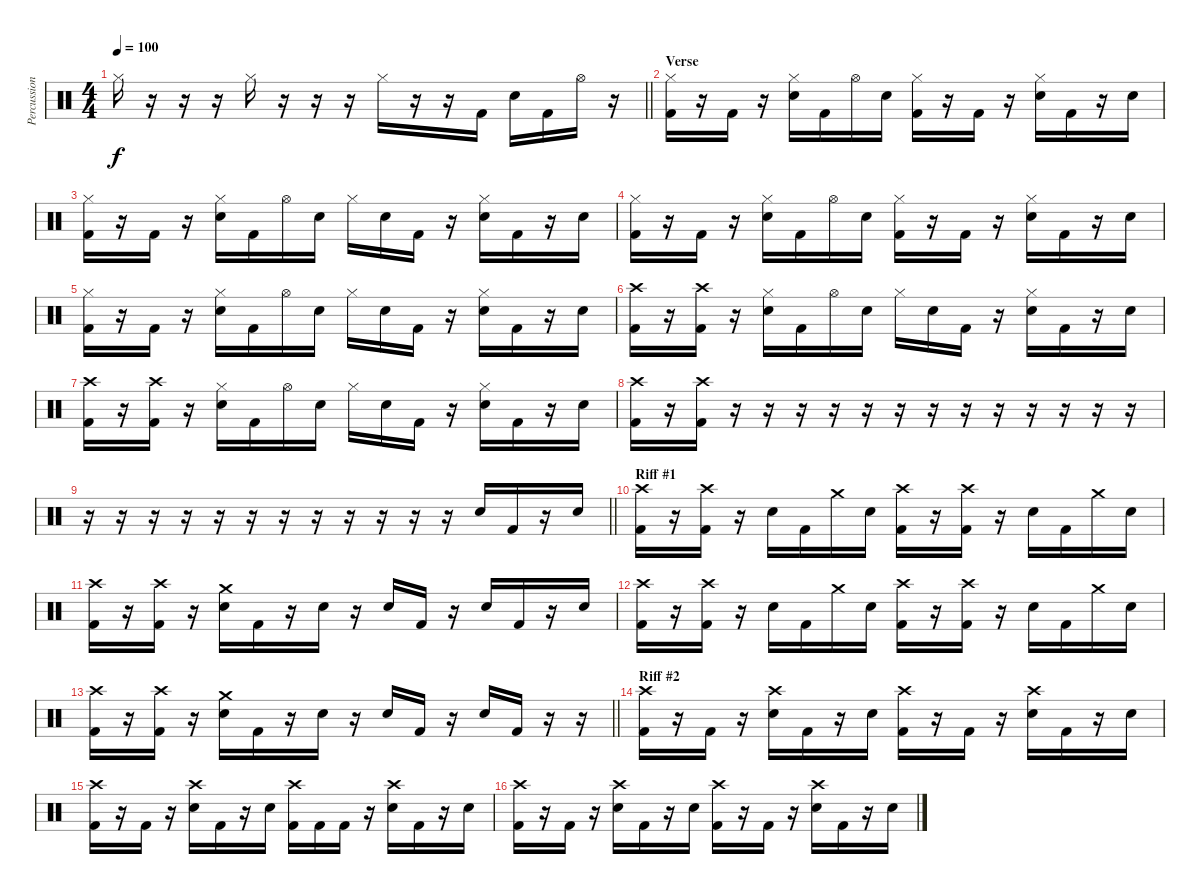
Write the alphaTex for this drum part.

\track ("Percussion" "Percussion") {instrument percussion}
\staff {score}
\articulation defaults
\ts (4 4)
\tempo 100
\clef neutral
\barLineRight lightlight
\ks c "Hi-Hat (closed)".16{dy f}
r.16 r.16 r.16 "Hi-Hat (closed)".16 r.16 r.16 r.16 "Hi-Hat (closed)".16 r.16 r.16 "Kick (hit) 2".16 "Electric Snare (hit)".16 "Kick (hit) 2".16 "Hi-Hat (open)".16 r.16 |
\section ("" "Verse")
("Hi-Hat (closed)" "Kick (hit) 2").16 r.16 "Kick (hit) 2".16 r.16 ("Hi-Hat (closed)" "Electric Snare (hit)").16 "Kick (hit) 2".16 "Hi-Hat (open)".16 "Electric Snare (hit)".16 ("Hi-Hat (closed)" "Kick (hit) 2").16 r.16 "Kick (hit) 2".16 r.16 ("Hi-Hat (closed)" "Electric Snare (hit)").16 "Kick (hit) 2".16 r.16 "Electric Snare (hit)".16 |
("Hi-Hat (closed)" "Kick (hit) 2").16 r.16 "Kick (hit) 2".16 r.16 ("Hi-Hat (closed)" "Electric Snare (hit)").16 "Kick (hit) 2".16 "Hi-Hat (open)".16 "Electric Snare (hit)".16 "Hi-Hat (closed)".16 "Electric Snare (hit)".16 "Kick (hit) 2".16 r.16 ("Hi-Hat (closed)" "Electric Snare (hit)").16 "Kick (hit) 2".16 r.16 "Electric Snare (hit)".16 |
("Hi-Hat (closed)" "Kick (hit) 2").16 r.16 "Kick (hit) 2".16 r.16 ("Hi-Hat (closed)" "Electric Snare (hit)").16 "Kick (hit) 2".16 "Hi-Hat (open)".16 "Electric Snare (hit)".16 ("Hi-Hat (closed)" "Kick (hit) 2").16 r.16 "Kick (hit) 2".16 r.16 ("Hi-Hat (closed)" "Electric Snare (hit)").16 "Kick (hit) 2".16 r.16 "Electric Snare (hit)".16 |
("Hi-Hat (closed)" "Kick (hit) 2").16 r.16 "Kick (hit) 2".16 r.16 ("Hi-Hat (closed)" "Electric Snare (hit)").16 "Kick (hit) 2".16 "Hi-Hat (open)".16 "Electric Snare (hit)".16 "Hi-Hat (closed)".16 "Electric Snare (hit)".16 "Kick (hit) 2".16 r.16 ("Hi-Hat (closed)" "Electric Snare (hit)").16 "Kick (hit) 2".16 r.16 "Electric Snare (hit)".16 |
("Crash high (hit)" "Kick (hit) 2").16 r.16 ("Crash high (hit)" "Kick (hit) 2").16 r.16 ("Hi-Hat (closed)" "Electric Snare (hit)").16 "Kick (hit) 2".16 "Hi-Hat (open)".16 "Electric Snare (hit)".16 "Hi-Hat (closed)".16 "Electric Snare (hit)".16 "Kick (hit) 2".16 r.16 ("Hi-Hat (closed)" "Electric Snare (hit)").16 "Kick (hit) 2".16 r.16 "Electric Snare (hit)".16 |
("Crash high (hit)" "Kick (hit) 2").16 r.16 ("Crash high (hit)" "Kick (hit) 2").16 r.16 ("Hi-Hat (closed)" "Electric Snare (hit)").16 "Kick (hit) 2".16 "Hi-Hat (open)".16 "Electric Snare (hit)".16 "Hi-Hat (closed)".16 "Electric Snare (hit)".16 "Kick (hit) 2".16 r.16 ("Hi-Hat (closed)" "Electric Snare (hit)").16 "Kick (hit) 2".16 r.16 "Electric Snare (hit)".16 |
("Crash high (hit)" "Kick (hit) 2").16 r.16 ("Crash high (hit)" "Kick (hit) 2").16 r.16 r.16 r.16 r.16 r.16 r.16 r.16 r.16 r.16 r.16 r.16 r.16 r.16 |
\barLineRight lightlight
r.16 r.16 r.16 r.16 r.16 r.16 r.16 r.16 r.16 r.16 r.16 r.16 "Electric Snare (hit)".16 "Kick (hit) 2".16 r.16 "Electric Snare (hit)".16 |
\section ("" "Riff #1")
("Crash high (hit)" "Kick (hit) 2").16 r.16 ("Crash high (hit)" "Kick (hit) 2").16 r.16 "Electric Snare (hit)".16 "Kick (hit) 2".16 "Crash medium (hit)".16 "Electric Snare (hit)".16 ("Crash high (hit)" "Kick (hit) 2").16 r.16 ("Crash high (hit)" "Kick (hit) 2").16 r.16 "Electric Snare (hit)".16 "Kick (hit) 2".16 "Crash medium (hit)".16 "Electric Snare (hit)".16 |
("Crash high (hit)" "Kick (hit) 2").16 r.16 ("Crash high (hit)" "Kick (hit) 2").16 r.16 ("Crash medium (hit)" "Electric Snare (hit)").16 "Kick (hit) 2".16 r.16 "Electric Snare (hit)".16 r.16 "Electric Snare (hit)".16 "Kick (hit) 2".16 r.16 "Electric Snare (hit)".16 "Kick (hit) 2".16 r.16 "Electric Snare (hit)".16 |
("Crash high (hit)" "Kick (hit) 2").16 r.16 ("Crash high (hit)" "Kick (hit) 2").16 r.16 "Electric Snare (hit)".16 "Kick (hit) 2".16 "Crash medium (hit)".16 "Electric Snare (hit)".16 ("Crash high (hit)" "Kick (hit) 2").16 r.16 ("Crash high (hit)" "Kick (hit) 2").16 r.16 "Electric Snare (hit)".16 "Kick (hit) 2".16 "Crash medium (hit)".16 "Electric Snare (hit)".16 |
\barLineRight lightlight
("Crash high (hit)" "Kick (hit) 2").16 r.16 ("Crash high (hit)" "Kick (hit) 2").16 r.16 ("Crash medium (hit)" "Electric Snare (hit)").16 "Kick (hit) 2".16 r.16 "Electric Snare (hit)".16 r.16 "Electric Snare (hit)".16 "Kick (hit) 2".16 r.16 "Electric Snare (hit)".16 "Kick (hit) 2".16 r.16 r.16 |
\section ("" "Riff #2")
("Crash high (hit)" "Kick (hit) 2").16 r.16 "Kick (hit) 2".16 r.16 ("Crash high (hit)" "Electric Snare (hit)").16 "Kick (hit) 2".16 r.16 "Electric Snare (hit)".16 ("Crash high (hit)" "Kick (hit) 2").16 r.16 "Kick (hit) 2".16 r.16 ("Crash high (hit)" "Electric Snare (hit)").16 "Kick (hit) 2".16 r.16 "Electric Snare (hit)".16 |
("Crash high (hit)" "Kick (hit) 2").16 r.16 "Kick (hit) 2".16 r.16 ("Crash high (hit)" "Electric Snare (hit)").16 "Kick (hit) 2".16 r.16 "Electric Snare (hit)".16 ("Crash high (hit)" "Kick (hit) 2").16 "Kick (hit) 2".16 "Kick (hit) 2".16 r.16 ("Crash high (hit)" "Electric Snare (hit)").16 "Kick (hit) 2".16 r.16 "Electric Snare (hit)".16 |
("Crash high (hit)" "Kick (hit) 2").16 r.16 "Kick (hit) 2".16 r.16 ("Crash high (hit)" "Electric Snare (hit)").16 "Kick (hit) 2".16 r.16 "Electric Snare (hit)".16 ("Crash high (hit)" "Kick (hit) 2").16 r.16 "Kick (hit) 2".16 r.16 ("Crash high (hit)" "Electric Snare (hit)").16 "Kick (hit) 2".16 r.16 "Electric Snare (hit)".16
